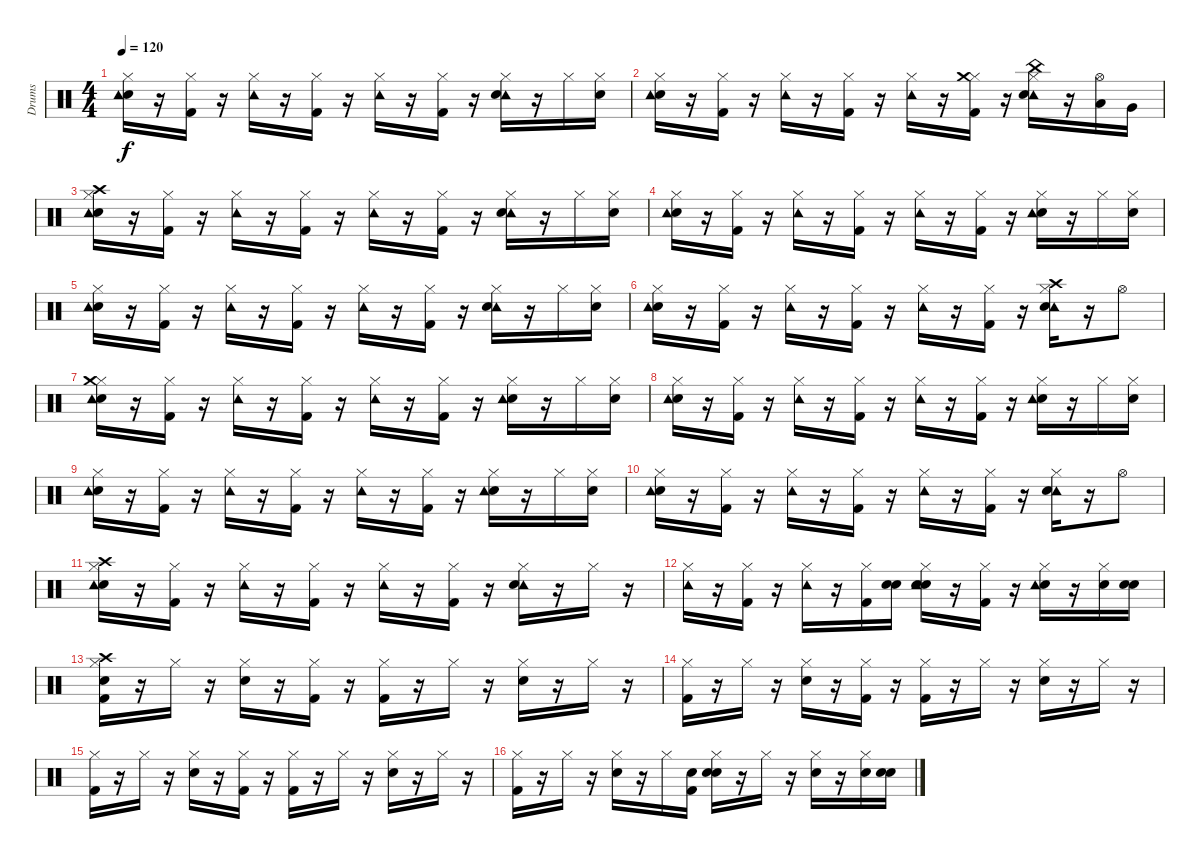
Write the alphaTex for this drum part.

\track ("Drums" "Drums") {instrument percussion}
\staff {score}
\articulation defaults
\ts (4 4)
\tempo 120
\clef neutral
\ks c
("Snare (hit)" "Tambourine (hit)" "Hi-Hat (closed)").16{dy f} r.16 ("Kick (hit) 2" "Hi-Hat (closed)").16 r.16 ("Hi-Hat (closed)" "Tambourine (hit)").16 r.16 ("Kick (hit) 2" "Hi-Hat (closed)").16 r.16 ("Tambourine (hit)" "Hi-Hat (closed)").16 r.16 ("Kick (hit) 2" "Hi-Hat (closed)").16 r.16 ("Tambourine (hit)" "Hi-Hat (closed)" "Snare (hit) 2").16 r.16 "Hi-Hat (closed)".16 ("Snare (hit)" "Hi-Hat (closed)").16 |
("Snare (hit)" "Tambourine (hit)" "Hi-Hat (closed)").16 r.16 ("Hi-Hat (closed)" "Kick (hit) 2").16 r.16 ("Hi-Hat (closed)" "Tambourine (hit)").16 r.16 ("Hi-Hat (closed)" "Kick (hit) 2").16 r.16 ("Hi-Hat (closed)" "Tambourine (hit)").16 r.16 ("Hi-Hat (closed)" "Crash medium (hit)" "Kick (hit) 2").16 r.16 ("Hi-Hat (closed)" "China (hit)" "Tambourine (hit)" "Snare (hit) 2").16 r.16 ("Low Tom (hit)" "Hi-Hat (open)").16 "Very Low Tom (hit)".16 |
("Snare (hit)" "Crash high (hit)" "Hi-Hat (closed)" "Tambourine (hit)").16 r.16 ("Kick (hit) 2" "Hi-Hat (closed)").16 r.16 ("Hi-Hat (closed)" "Tambourine (hit)").16 r.16 ("Hi-Hat (closed)" "Kick (hit) 2").16 r.16 ("Hi-Hat (closed)" "Tambourine (hit)").16 r.16 ("Kick (hit) 2" "Hi-Hat (closed)").16 r.16 ("Hi-Hat (closed)" "Tambourine (hit)" "Snare (hit) 2").16 r.16 "Hi-Hat (closed)".16 ("Snare (hit)" "Hi-Hat (closed)").16 |
("Snare (hit)" "Hi-Hat (closed)" "Tambourine (hit)").16 r.16 ("Hi-Hat (closed)" "Kick (hit) 2").16 r.16 ("Hi-Hat (closed)" "Tambourine (hit)").16 r.16 ("Hi-Hat (closed)" "Kick (hit) 2").16 r.16 ("Tambourine (hit)" "Hi-Hat (closed)").16 r.16 ("Kick (hit) 2" "Hi-Hat (closed)").16 r.16 ("Snare (hit) 2" "Hi-Hat (closed)" "Tambourine (hit)").16 r.16 "Hi-Hat (closed)".16 ("Snare (hit)" "Hi-Hat (closed)").16 |
("Snare (hit)" "Hi-Hat (closed)" "Tambourine (hit)").16 r.16 ("Kick (hit) 2" "Hi-Hat (closed)").16 r.16 ("Hi-Hat (closed)" "Tambourine (hit)").16 r.16 ("Kick (hit) 2" "Hi-Hat (closed)").16 r.16 ("Hi-Hat (closed)" "Tambourine (hit)").16 r.16 ("Kick (hit) 2" "Hi-Hat (closed)").16 r.16 ("Tambourine (hit)" "Hi-Hat (closed)" "Snare (hit) 2").16 r.16 "Hi-Hat (closed)".16 ("Snare (hit)" "Hi-Hat (closed)").16 |
("Snare (hit)" "Hi-Hat (closed)" "Tambourine (hit)").16 r.16 ("Hi-Hat (closed)" "Kick (hit) 2").16 r.16 ("Tambourine (hit)" "Hi-Hat (closed)").16 r.16 ("Kick (hit) 2" "Hi-Hat (closed)").16 r.16 ("Tambourine (hit)" "Hi-Hat (closed)").16 r.16 ("Hi-Hat (closed)" "Kick (hit) 2").16 r.16 ("Tambourine (hit)" "Crash high (hit)" "Snare (hit) 2" "Hi-Hat (closed)").16 r.16 "Hi-Hat (open)".8 |
("Snare (hit)" "Hi-Hat (closed)" "Tambourine (hit)" "Crash medium (hit)").16 r.16 ("Kick (hit) 2" "Hi-Hat (closed)").16 r.16 ("Hi-Hat (closed)" "Tambourine (hit)").16 r.16 ("Kick (hit) 2" "Hi-Hat (closed)").16 r.16 ("Tambourine (hit)" "Hi-Hat (closed)").16 r.16 ("Kick (hit) 2" "Hi-Hat (closed)").16 r.16 ("Snare (hit) 2" "Tambourine (hit)" "Hi-Hat (closed)").16 r.16 "Hi-Hat (closed)".16 ("Snare (hit)" "Hi-Hat (closed)").16 |
("Snare (hit)" "Tambourine (hit)" "Hi-Hat (closed)").16 r.16 ("Kick (hit) 2" "Hi-Hat (closed)").16 r.16 ("Hi-Hat (closed)" "Tambourine (hit)").16 r.16 ("Hi-Hat (closed)" "Kick (hit) 2").16 r.16 ("Hi-Hat (closed)" "Tambourine (hit)").16 r.16 ("Hi-Hat (closed)" "Kick (hit) 2").16 r.16 ("Snare (hit) 2" "Tambourine (hit)" "Hi-Hat (closed)").16 r.16 "Hi-Hat (closed)".16 ("Snare (hit)" "Hi-Hat (closed)").16 |
("Snare (hit)" "Hi-Hat (closed)" "Tambourine (hit)").16 r.16 ("Hi-Hat (closed)" "Kick (hit) 2").16 r.16 ("Hi-Hat (closed)" "Tambourine (hit)").16 r.16 ("Hi-Hat (closed)" "Kick (hit) 2").16 r.16 ("Tambourine (hit)" "Hi-Hat (closed)").16 r.16 ("Kick (hit) 2" "Hi-Hat (closed)").16 r.16 ("Snare (hit) 2" "Hi-Hat (closed)" "Tambourine (hit)").16 r.16 "Hi-Hat (closed)".16 ("Snare (hit)" "Hi-Hat (closed)").16 |
("Snare (hit)" "Tambourine (hit)" "Hi-Hat (closed)").16 r.16 ("Kick (hit) 2" "Hi-Hat (closed)").16 r.16 ("Tambourine (hit)" "Hi-Hat (closed)").16 r.16 ("Kick (hit) 2" "Hi-Hat (closed)").16 r.16 ("Tambourine (hit)" "Hi-Hat (closed)").16 r.16 ("Hi-Hat (closed)" "Kick (hit) 2").16 r.16 ("Hi-Hat (closed)" "Tambourine (hit)" "Snare (hit) 2").16 r.16 "Hi-Hat (open)".8 |
("Snare (hit)" "Crash high (hit)" "Hi-Hat (closed)" "Tambourine (hit)").16 r.16 ("Kick (hit) 2" "Hi-Hat (closed)").16 r.16 ("Tambourine (hit)" "Hi-Hat (closed)").16 r.16 ("Hi-Hat (closed)" "Kick (hit) 2").16 r.16 ("Tambourine (hit)" "Hi-Hat (closed)").16 r.16 ("Kick (hit) 2" "Hi-Hat (closed)").16 r.16 ("Tambourine (hit)" "Snare (hit) 2" "Hi-Hat (closed)").16 r.16 "Hi-Hat (closed)".16 r.16 |
("Tambourine (hit)" "Hi-Hat (closed)").16 r.16 ("Kick (hit) 2" "Hi-Hat (closed)").16 r.16 ("Tambourine (hit)" "Hi-Hat (closed)").16 r.16 ("Kick (hit) 2" "Hi-Hat (closed)").16 ("Snare (hit)" "Snare (hit) 2").16 ("Snare (hit)" "Snare (hit) 2" "Tambourine (hit)" "Hi-Hat (closed)").16 r.16 ("Kick (hit) 2" "Hi-Hat (closed)").16 r.16 ("Snare (hit) 2" "Hi-Hat (closed)" "Tambourine (hit)").16 r.16 ("Snare (hit) 2" "Hi-Hat (closed)").16 ("Snare (hit)" "Snare (hit) 2").16 |
("Snare (hit)" "Crash high (hit)" "Kick (hit) 2" "Hi-Hat (closed)").16 r.16 "Hi-Hat (closed)".16 r.16 ("Hi-Hat (closed)" "Snare (hit) 2").16 r.16 ("Kick (hit) 2" "Hi-Hat (closed)").16 r.16 ("Kick (hit) 2" "Hi-Hat (closed)").16 r.16 "Hi-Hat (closed)".16 r.16 ("Hi-Hat (closed)" "Snare (hit) 2").16 r.16 "Hi-Hat (closed)".16 r.16 |
("Hi-Hat (closed)" "Kick (hit) 2").16 r.16 "Hi-Hat (closed)".16 r.16 ("Hi-Hat (closed)" "Snare (hit) 2").16 r.16 ("Kick (hit) 2" "Hi-Hat (closed)").16 r.16 ("Kick (hit) 2" "Hi-Hat (closed)").16 r.16 "Hi-Hat (closed)".16 r.16 ("Hi-Hat (closed)" "Snare (hit) 2").16 r.16 "Hi-Hat (closed)".16 r.16 |
("Kick (hit) 2" "Hi-Hat (closed)").16 r.16 "Hi-Hat (closed)".16 r.16 ("Hi-Hat (closed)" "Snare (hit) 2").16 r.16 ("Hi-Hat (closed)" "Kick (hit) 2").16 r.16 ("Hi-Hat (closed)" "Kick (hit) 2").16 r.16 "Hi-Hat (closed)".16 r.16 ("Hi-Hat (closed)" "Snare (hit) 2").16 r.16 "Hi-Hat (closed)".16 r.16 |
("Kick (hit) 2" "Hi-Hat (closed)").16 r.16 "Hi-Hat (closed)".16 r.16 ("Hi-Hat (closed)" "Snare (hit) 2").16 r.16 "Hi-Hat (closed)".16 ("Snare (hit)" "Kick (hit) 2").16 ("Snare (hit)" "Snare (hit) 2" "Hi-Hat (closed)").16 r.16 "Hi-Hat (closed)".16 r.16 ("Hi-Hat (closed)" "Snare (hit) 2").16 r.16 ("Snare (hit) 2" "Hi-Hat (closed)").16 ("Snare (hit)" "Snare (hit) 2").16
